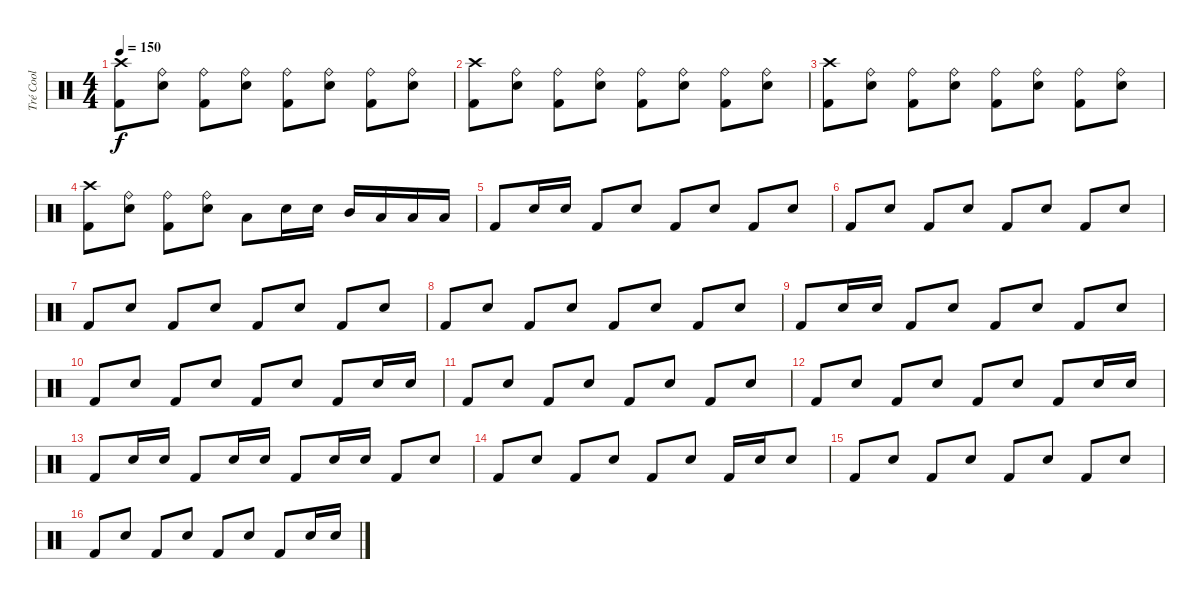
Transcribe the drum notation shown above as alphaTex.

\track ("Tré Cool" "Tré Cool") {instrument percussion}
\staff {score}
\articulation defaults
\ts (4 4)
\tempo 150
\clef neutral
\ks c
("Crash high (hit)" "Kick (hit) 2").8{dy f} ("Ride (bell)" "Electric Snare (hit)").8 ("Ride (bell)" "Kick (hit) 2").8 ("Ride (bell)" "Electric Snare (hit)").8 ("Ride (bell)" "Kick (hit) 2").8 ("Ride (bell)" "Electric Snare (hit)").8 ("Ride (bell)" "Kick (hit) 2").8 ("Ride (bell)" "Electric Snare (hit)").8 |
("Crash high (hit)" "Kick (hit) 2").8 ("Ride (bell)" "Electric Snare (hit)").8 ("Ride (bell)" "Kick (hit) 2").8 ("Ride (bell)" "Electric Snare (hit)").8 ("Ride (bell)" "Kick (hit) 2").8 ("Ride (bell)" "Electric Snare (hit)").8 ("Ride (bell)" "Kick (hit) 2").8 ("Ride (bell)" "Electric Snare (hit)").8 |
("Crash high (hit)" "Kick (hit) 2").8 ("Ride (bell)" "Electric Snare (hit)").8 ("Ride (bell)" "Kick (hit) 2").8 ("Ride (bell)" "Electric Snare (hit)").8 ("Ride (bell)" "Kick (hit) 2").8 ("Ride (bell)" "Electric Snare (hit)").8 ("Ride (bell)" "Kick (hit) 2").8 ("Ride (bell)" "Electric Snare (hit)").8 |
("Crash high (hit)" "Kick (hit) 2").8 ("Ride (bell)" "Electric Snare (hit)").8 ("Ride (bell)" "Kick (hit) 2").8 ("Ride (bell)" "Electric Snare (hit)").8 "Low Tom (hit)".8 "Electric Snare (hit)".16 "Electric Snare (hit)".16 "Mid Tom (hit)".16 "Low Tom (hit)".16 "Low Tom (hit)".16 "Low Tom (hit)".16 |
"Kick (hit) 2".8 "Electric Snare (hit)".16 "Electric Snare (hit)".16 "Kick (hit) 2".8 "Electric Snare (hit)".8 "Kick (hit) 2".8 "Electric Snare (hit)".8 "Kick (hit) 2".8 "Electric Snare (hit)".8 |
"Kick (hit) 2".8 "Electric Snare (hit)".8 "Kick (hit) 2".8 "Electric Snare (hit)".8 "Kick (hit) 2".8 "Electric Snare (hit)".8 "Kick (hit) 2".8 "Electric Snare (hit)".8 |
"Kick (hit) 2".8 "Electric Snare (hit)".8 "Kick (hit) 2".8 "Electric Snare (hit)".8 "Kick (hit) 2".8 "Electric Snare (hit)".8 "Kick (hit) 2".8 "Electric Snare (hit)".8 |
"Kick (hit) 2".8 "Electric Snare (hit)".8 "Kick (hit) 2".8 "Electric Snare (hit)".8 "Kick (hit) 2".8 "Electric Snare (hit)".8 "Kick (hit) 2".8 "Electric Snare (hit)".8 |
"Kick (hit) 2".8 "Electric Snare (hit)".16 "Electric Snare (hit)".16 "Kick (hit) 2".8 "Electric Snare (hit)".8 "Kick (hit) 2".8 "Electric Snare (hit)".8 "Kick (hit) 2".8 "Electric Snare (hit)".8 |
"Kick (hit) 2".8 "Electric Snare (hit)".8 "Kick (hit) 2".8 "Electric Snare (hit)".8 "Kick (hit) 2".8 "Electric Snare (hit)".8 "Kick (hit) 2".8 "Electric Snare (hit)".16 "Electric Snare (hit)".16 |
"Kick (hit) 2".8 "Electric Snare (hit)".8 "Kick (hit) 2".8 "Electric Snare (hit)".8 "Kick (hit) 2".8 "Electric Snare (hit)".8 "Kick (hit) 2".8 "Electric Snare (hit)".8 |
"Kick (hit) 2".8 "Electric Snare (hit)".8 "Kick (hit) 2".8 "Electric Snare (hit)".8 "Kick (hit) 2".8 "Electric Snare (hit)".8 "Kick (hit) 2".8 "Electric Snare (hit)".16 "Electric Snare (hit)".16 |
"Kick (hit) 2".8 "Electric Snare (hit)".16 "Electric Snare (hit)".16 "Kick (hit) 2".8 "Electric Snare (hit)".16 "Electric Snare (hit)".16 "Kick (hit) 2".8 "Electric Snare (hit)".16 "Electric Snare (hit)".16 "Kick (hit) 2".8 "Electric Snare (hit)".8 |
"Kick (hit) 2".8 "Electric Snare (hit)".8 "Kick (hit) 2".8 "Electric Snare (hit)".8 "Kick (hit) 2".8 "Electric Snare (hit)".8 "Kick (hit) 2".16 "Electric Snare (hit)".16 "Electric Snare (hit)".8 |
"Kick (hit) 2".8 "Electric Snare (hit)".8 "Kick (hit) 2".8 "Electric Snare (hit)".8 "Kick (hit) 2".8 "Electric Snare (hit)".8 "Kick (hit) 2".8 "Electric Snare (hit)".8 |
"Kick (hit) 2".8 "Electric Snare (hit)".8 "Kick (hit) 2".8 "Electric Snare (hit)".8 "Kick (hit) 2".8 "Electric Snare (hit)".8 "Kick (hit) 2".8 "Electric Snare (hit)".16 "Electric Snare (hit)".16
